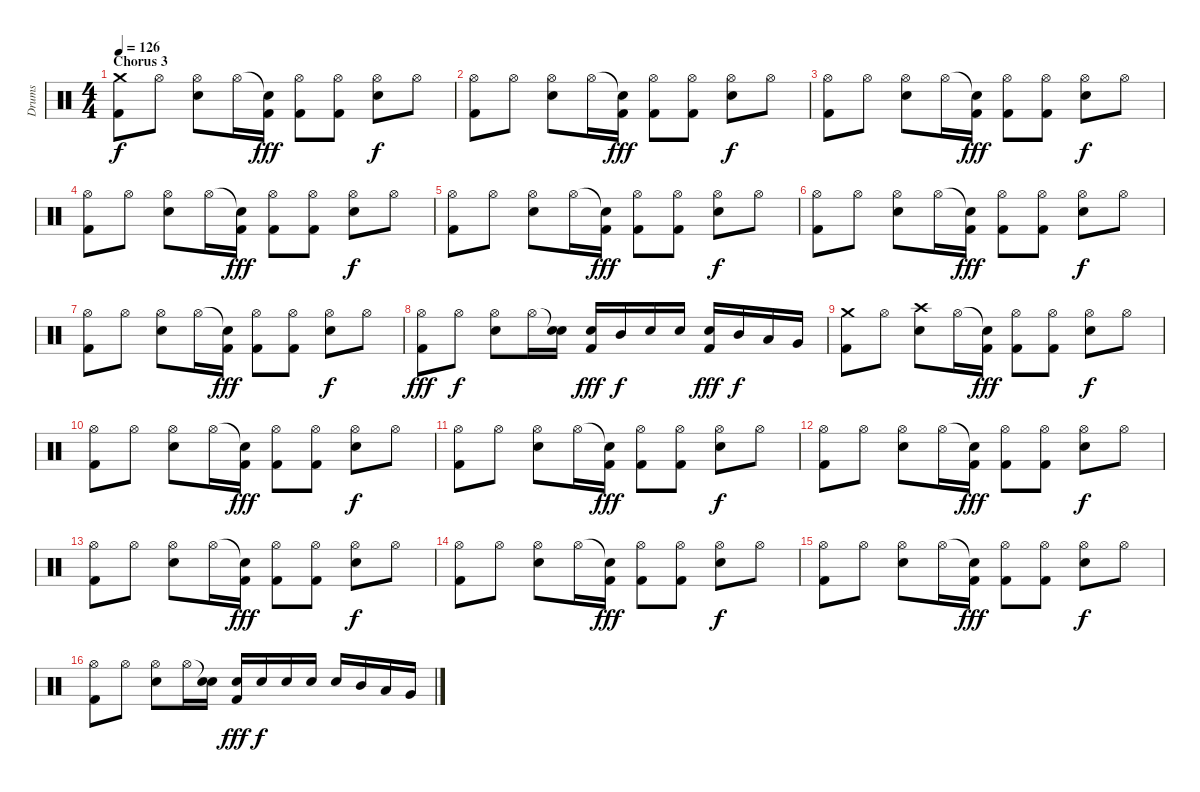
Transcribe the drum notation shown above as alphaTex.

\track ("Drums" "Drums") {instrument percussion}
\staff {score}
\articulation defaults
\ts (4 4)
\section ("" "Chorus 3")
\tempo 126
\clef neutral
\ks c
("Crash medium (hit)" "Kick (hit) 2").8{dy f} "Hi-Hat (open)".8 ("Hi-Hat (open)" "Snare (hit) 2").8 "Hi-Hat (open)".16 ("Snare (hit)"{t} "Kick (hit) 2").16{dy fff} ("Hi-Hat (open)" "Kick (hit) 2").8 ("Hi-Hat (open)" "Kick (hit) 2").8 ("Hi-Hat (open)" "Snare (hit) 2").8{dy f} "Hi-Hat (open)".8 |
("Hi-Hat (open)" "Kick (hit) 2").8 "Hi-Hat (open)".8 ("Hi-Hat (open)" "Snare (hit) 2").8 "Hi-Hat (open)".16 ("Snare (hit)"{t} "Kick (hit) 2").16{dy fff} ("Hi-Hat (open)" "Kick (hit) 2").8 ("Hi-Hat (open)" "Kick (hit) 2").8 ("Hi-Hat (open)" "Snare (hit) 2").8{dy f} "Hi-Hat (open)".8 |
("Hi-Hat (open)" "Kick (hit) 2").8 "Hi-Hat (open)".8 ("Hi-Hat (open)" "Snare (hit) 2").8 "Hi-Hat (open)".16 ("Snare (hit)"{t} "Kick (hit) 2").16{dy fff} ("Hi-Hat (open)" "Kick (hit) 2").8 ("Hi-Hat (open)" "Kick (hit) 2").8 ("Hi-Hat (open)" "Snare (hit) 2").8{dy f} "Hi-Hat (open)".8 |
("Hi-Hat (open)" "Kick (hit) 2").8 "Hi-Hat (open)".8 ("Hi-Hat (open)" "Snare (hit) 2").8 "Hi-Hat (open)".16 ("Snare (hit)"{t} "Kick (hit) 2").16{dy fff} ("Hi-Hat (open)" "Kick (hit) 2").8 ("Hi-Hat (open)" "Kick (hit) 2").8 ("Hi-Hat (open)" "Snare (hit) 2").8{dy f} "Hi-Hat (open)".8 |
("Hi-Hat (open)" "Kick (hit) 2").8 "Hi-Hat (open)".8 ("Hi-Hat (open)" "Snare (hit) 2").8 "Hi-Hat (open)".16 ("Snare (hit)"{t} "Kick (hit) 2").16{dy fff} ("Hi-Hat (open)" "Kick (hit) 2").8 ("Hi-Hat (open)" "Kick (hit) 2").8 ("Hi-Hat (open)" "Snare (hit) 2").8{dy f} "Hi-Hat (open)".8 |
("Hi-Hat (open)" "Kick (hit) 2").8 "Hi-Hat (open)".8 ("Hi-Hat (open)" "Snare (hit) 2").8 "Hi-Hat (open)".16 ("Snare (hit)"{t} "Kick (hit) 2").16{dy fff} ("Hi-Hat (open)" "Kick (hit) 2").8 ("Hi-Hat (open)" "Kick (hit) 2").8 ("Hi-Hat (open)" "Snare (hit) 2").8{dy f} "Hi-Hat (open)".8 |
("Hi-Hat (open)" "Kick (hit) 2").8 "Hi-Hat (open)".8 ("Hi-Hat (open)" "Snare (hit) 2").8 "Hi-Hat (open)".16 ("Snare (hit)"{t} "Kick (hit) 2").16{dy fff} ("Hi-Hat (open)" "Kick (hit) 2").8 ("Hi-Hat (open)" "Kick (hit) 2").8 ("Hi-Hat (open)" "Snare (hit) 2").8{dy f} "Hi-Hat (open)".8 |
("Hi-Hat (open)" "Kick (hit) 2").8{dy fff} "Hi-Hat (open)".8{dy f} ("Hi-Hat (open)" "Snare (hit) 2").8 "Hi-Hat (open)".16 ("Snare (hit)"{t} "Snare (hit) 2").16 ("Snare (hit) 2" "Kick (hit) 2").16{dy fff} "Mid Tom (hit)".16{dy f} "Snare (hit) 2".16 "Snare (hit) 2".16 ("Snare (hit) 2" "Kick (hit) 2").16{dy fff} "Mid Tom (hit)".16{dy f} "Low Tom (hit)".16 "Very Low Tom (hit)".16 |
("Crash medium (hit)" "Kick (hit) 2").8 "Hi-Hat (open)".8 ("Crash high (hit)" "Snare (hit) 2").8 "Hi-Hat (open)".16 ("Snare (hit)"{t} "Kick (hit) 2").16{dy fff} ("Hi-Hat (open)" "Kick (hit) 2").8 ("Hi-Hat (open)" "Kick (hit) 2").8 ("Hi-Hat (open)" "Snare (hit) 2").8{dy f} "Hi-Hat (open)".8 |
("Hi-Hat (open)" "Kick (hit) 2").8 "Hi-Hat (open)".8 ("Hi-Hat (open)" "Snare (hit) 2").8 "Hi-Hat (open)".16 ("Snare (hit)"{t} "Kick (hit) 2").16{dy fff} ("Hi-Hat (open)" "Kick (hit) 2").8 ("Hi-Hat (open)" "Kick (hit) 2").8 ("Hi-Hat (open)" "Snare (hit) 2").8{dy f} "Hi-Hat (open)".8 |
("Hi-Hat (open)" "Kick (hit) 2").8 "Hi-Hat (open)".8 ("Hi-Hat (open)" "Snare (hit) 2").8 "Hi-Hat (open)".16 ("Snare (hit)"{t} "Kick (hit) 2").16{dy fff} ("Hi-Hat (open)" "Kick (hit) 2").8 ("Hi-Hat (open)" "Kick (hit) 2").8 ("Hi-Hat (open)" "Snare (hit) 2").8{dy f} "Hi-Hat (open)".8 |
("Hi-Hat (open)" "Kick (hit) 2").8 "Hi-Hat (open)".8 ("Hi-Hat (open)" "Snare (hit) 2").8 "Hi-Hat (open)".16 ("Snare (hit)"{t} "Kick (hit) 2").16{dy fff} ("Hi-Hat (open)" "Kick (hit) 2").8 ("Hi-Hat (open)" "Kick (hit) 2").8 ("Hi-Hat (open)" "Snare (hit) 2").8{dy f} "Hi-Hat (open)".8 |
("Hi-Hat (open)" "Kick (hit) 2").8 "Hi-Hat (open)".8 ("Hi-Hat (open)" "Snare (hit) 2").8 "Hi-Hat (open)".16 ("Snare (hit)"{t} "Kick (hit) 2").16{dy fff} ("Hi-Hat (open)" "Kick (hit) 2").8 ("Hi-Hat (open)" "Kick (hit) 2").8 ("Hi-Hat (open)" "Snare (hit) 2").8{dy f} "Hi-Hat (open)".8 |
("Hi-Hat (open)" "Kick (hit) 2").8 "Hi-Hat (open)".8 ("Hi-Hat (open)" "Snare (hit) 2").8 "Hi-Hat (open)".16 ("Snare (hit)"{t} "Kick (hit) 2").16{dy fff} ("Hi-Hat (open)" "Kick (hit) 2").8 ("Hi-Hat (open)" "Kick (hit) 2").8 ("Hi-Hat (open)" "Snare (hit) 2").8{dy f} "Hi-Hat (open)".8 |
("Hi-Hat (open)" "Kick (hit) 2").8 "Hi-Hat (open)".8 ("Hi-Hat (open)" "Snare (hit) 2").8 "Hi-Hat (open)".16 ("Snare (hit)"{t} "Kick (hit) 2").16{dy fff} ("Hi-Hat (open)" "Kick (hit) 2").8 ("Hi-Hat (open)" "Kick (hit) 2").8 ("Hi-Hat (open)" "Snare (hit) 2").8{dy f} "Hi-Hat (open)".8 |
("Hi-Hat (open)" "Kick (hit) 2").8 "Hi-Hat (open)".8 ("Hi-Hat (open)" "Snare (hit) 2").8 "Hi-Hat (open)".16 ("Snare (hit)"{t} "Snare (hit) 2").16 ("Snare (hit) 2" "Kick (hit) 2").16{dy fff} "Snare (hit) 2".16{dy f} "Snare (hit) 2".16 "Snare (hit) 2".16 "Snare (hit) 2".16 "Mid Tom (hit)".16 "Low Tom (hit)".16 "Very Low Tom (hit)".16
